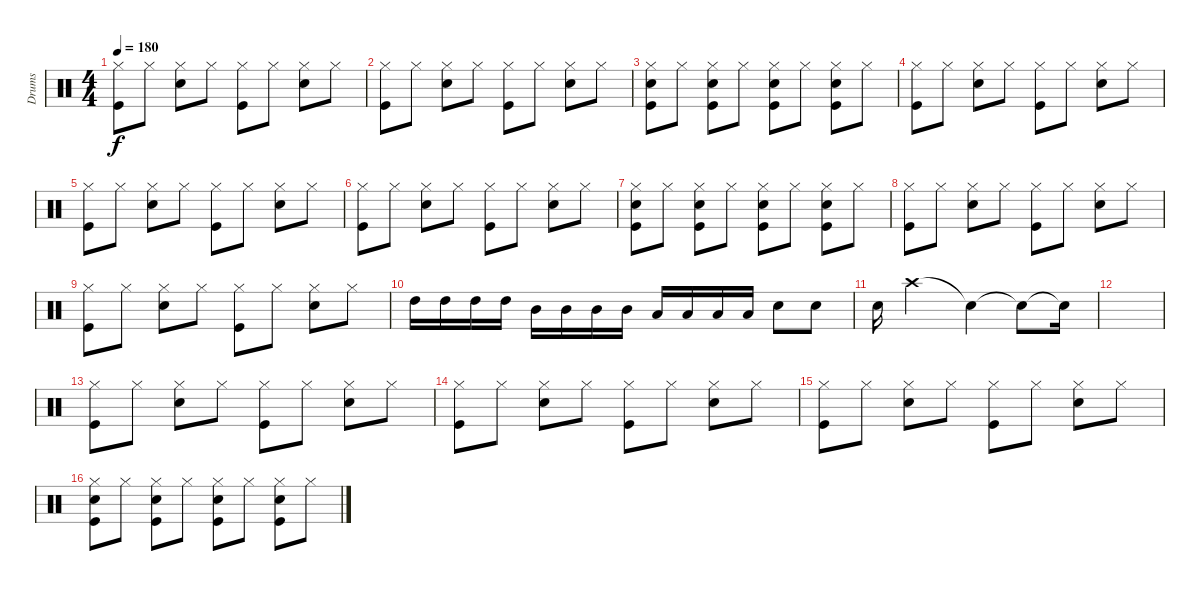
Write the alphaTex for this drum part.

\track ("Drums" "Drums") {instrument percussion}
\staff {score}
\articulation defaults
\ts (4 4)
\tempo 180
\clef neutral
\ks c
("Hi-Hat (closed)" "Kick (hit)").8{dy f} "Hi-Hat (closed)".8 ("Hi-Hat (closed)" "Snare (hit) 2").8 "Hi-Hat (closed)".8 ("Hi-Hat (closed)" "Kick (hit)").8 "Hi-Hat (closed)".8 ("Hi-Hat (closed)" "Snare (hit) 2").8 "Hi-Hat (closed)".8 |
("Hi-Hat (closed)" "Kick (hit)").8 "Hi-Hat (closed)".8 ("Hi-Hat (closed)" "Snare (hit) 2").8 "Hi-Hat (closed)".8 ("Hi-Hat (closed)" "Kick (hit)").8 "Hi-Hat (closed)".8 ("Hi-Hat (closed)" "Snare (hit) 2").8 "Hi-Hat (closed)".8 |
("Hi-Hat (closed)" "Kick (hit)" "Snare (hit) 2").8 "Hi-Hat (closed)".8 ("Hi-Hat (closed)" "Kick (hit)" "Snare (hit) 2").8 "Hi-Hat (closed)".8 ("Hi-Hat (closed)" "Kick (hit)" "Snare (hit) 2").8 "Hi-Hat (closed)".8 ("Hi-Hat (closed)" "Kick (hit)" "Snare (hit) 2").8 "Hi-Hat (closed)".8 |
("Hi-Hat (closed)" "Kick (hit)").8 "Hi-Hat (closed)".8 ("Hi-Hat (closed)" "Snare (hit) 2").8 "Hi-Hat (closed)".8 ("Hi-Hat (closed)" "Kick (hit)").8 "Hi-Hat (closed)".8 ("Hi-Hat (closed)" "Snare (hit) 2").8 "Hi-Hat (closed)".8 |
("Hi-Hat (closed)" "Kick (hit)").8 "Hi-Hat (closed)".8 ("Hi-Hat (closed)" "Snare (hit) 2").8 "Hi-Hat (closed)".8 ("Hi-Hat (closed)" "Kick (hit)").8 "Hi-Hat (closed)".8 ("Hi-Hat (closed)" "Snare (hit) 2").8 "Hi-Hat (closed)".8 |
("Hi-Hat (closed)" "Kick (hit)").8 "Hi-Hat (closed)".8 ("Hi-Hat (closed)" "Snare (hit) 2").8 "Hi-Hat (closed)".8 ("Hi-Hat (closed)" "Kick (hit)").8 "Hi-Hat (closed)".8 ("Hi-Hat (closed)" "Snare (hit) 2").8 "Hi-Hat (closed)".8 |
("Hi-Hat (closed)" "Kick (hit)" "Snare (hit) 2").8 "Hi-Hat (closed)".8 ("Hi-Hat (closed)" "Kick (hit)" "Snare (hit) 2").8 "Hi-Hat (closed)".8 ("Hi-Hat (closed)" "Kick (hit)" "Snare (hit) 2").8 "Hi-Hat (closed)".8 ("Hi-Hat (closed)" "Kick (hit)" "Snare (hit) 2").8 "Hi-Hat (closed)".8 |
("Hi-Hat (closed)" "Kick (hit)").8 "Hi-Hat (closed)".8 ("Hi-Hat (closed)" "Snare (hit) 2").8 "Hi-Hat (closed)".8 ("Hi-Hat (closed)" "Kick (hit)").8 "Hi-Hat (closed)".8 ("Hi-Hat (closed)" "Snare (hit) 2").8 "Hi-Hat (closed)".8 |
("Hi-Hat (closed)" "Kick (hit)").8 "Hi-Hat (closed)".8 ("Hi-Hat (closed)" "Snare (hit) 2").8 "Hi-Hat (closed)".8 ("Hi-Hat (closed)" "Kick (hit)").8 "Hi-Hat (closed)".8 ("Hi-Hat (closed)" "Snare (hit) 2").8 "Hi-Hat (closed)".8 |
"High Tom (hit)".16 "High Tom (hit)".16 "High Tom (hit)".16 "High Tom (hit)".16 "Mid Tom (hit)".16 "Mid Tom (hit)".16 "Mid Tom (hit)".16 "Mid Tom (hit)".16 "Low Tom (hit)".16 "Low Tom (hit)".16 "Low Tom (hit)".16 "Low Tom (hit)".16 "Snare (hit) 2".8 "Snare (hit) 2".8 |
"Snare (hit) 2".16 "Crash high (hit)".2 "Snare (hit)"{t}.4 "Snare (hit)"{t}.8 "Snare (hit)"{t}.16 |
|
("Hi-Hat (closed)" "Kick (hit)").8 "Hi-Hat (closed)".8 ("Hi-Hat (closed)" "Snare (hit) 2").8 "Hi-Hat (closed)".8 ("Hi-Hat (closed)" "Kick (hit)").8 "Hi-Hat (closed)".8 ("Hi-Hat (closed)" "Snare (hit) 2").8 "Hi-Hat (closed)".8 |
("Hi-Hat (closed)" "Kick (hit)").8 "Hi-Hat (closed)".8 ("Hi-Hat (closed)" "Snare (hit) 2").8 "Hi-Hat (closed)".8 ("Hi-Hat (closed)" "Kick (hit)").8 "Hi-Hat (closed)".8 ("Hi-Hat (closed)" "Snare (hit) 2").8 "Hi-Hat (closed)".8 |
("Hi-Hat (closed)" "Kick (hit)").8 "Hi-Hat (closed)".8 ("Hi-Hat (closed)" "Snare (hit) 2").8 "Hi-Hat (closed)".8 ("Hi-Hat (closed)" "Kick (hit)").8 "Hi-Hat (closed)".8 ("Hi-Hat (closed)" "Snare (hit) 2").8 "Hi-Hat (closed)".8 |
("Hi-Hat (closed)" "Kick (hit)" "Snare (hit) 2").8 "Hi-Hat (closed)".8 ("Hi-Hat (closed)" "Kick (hit)" "Snare (hit) 2").8 "Hi-Hat (closed)".8 ("Hi-Hat (closed)" "Kick (hit)" "Snare (hit) 2").8 "Hi-Hat (closed)".8 ("Hi-Hat (closed)" "Kick (hit)" "Snare (hit) 2").8 "Hi-Hat (closed)".8
